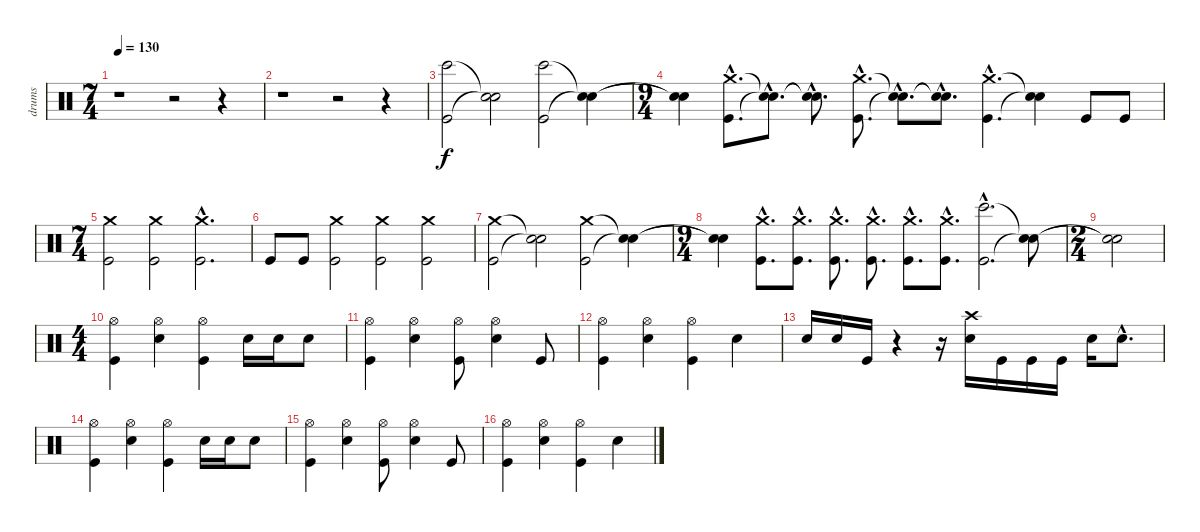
\track ("drums" "drums") {instrument percussion}
\staff {score}
\articulation defaults
\ts (7 4)
\tempo 130
\clef neutral
\ks c
r.1{dy f} r.2 r.4 |
r.1 r.2 r.4 |
("Bongo High (hit)" "Kick (hit)").2 ("Snare (hit)"{t} "Snare (hit)"{t}).2 ("Bongo High (hit)" "Kick (hit)").2 ("Snare (hit)"{t} "Snare (hit)"{t}).4 |
\ts (9 4)
("Snare (hit)"{t} "Snare (hit)"{t}).4 ("Crash medium (hit)"{hac} "Kick (hit)"{hac}).8{d} ("Snare (hit)"{hac t} "Snare (hit)"{hac t}).8{d} ("Snare (hit)"{hac t} "Snare (hit)"{hac t}).8{d} ("Crash medium (hit)"{hac} "Kick (hit)"{hac}).8{d} ("Snare (hit)"{hac t} "Snare (hit)"{hac t}).8{d} ("Snare (hit)"{hac t} "Snare (hit)"{hac t}).8{d} ("Crash medium (hit)"{hac} "Kick (hit)"{hac}).4{d} ("Snare (hit)"{t} "Snare (hit)"{t}).4 "Kick (hit)".8 "Kick (hit)".8 |
\ts (7 4)
("Crash medium (hit)" "Kick (hit)").2 ("Crash medium (hit)" "Kick (hit)").2 ("Crash medium (hit)"{hac} "Kick (hit)"{hac}).2{d} |
"Kick (hit)".8 "Kick (hit)".8 ("Crash medium (hit)" "Kick (hit)").2 ("Crash medium (hit)" "Kick (hit)").2 ("Crash medium (hit)" "Kick (hit)").2 |
("Crash medium (hit)" "Kick (hit)").2 ("Snare (hit)"{t} "Snare (hit)"{t}).2 ("Crash medium (hit)" "Kick (hit)").2 ("Snare (hit)"{t} "Snare (hit)"{t}).4 |
\ts (9 4)
("Snare (hit)"{t} "Snare (hit)"{t}).4 ("Crash medium (hit)"{hac} "Kick (hit)"{hac}).8{d} ("Crash medium (hit)"{hac} "Kick (hit)"{hac}).8{d} ("Crash medium (hit)"{hac} "Kick (hit)"{hac}).8{d} ("Crash medium (hit)"{hac} "Kick (hit)"{hac}).8{d} ("Crash medium (hit)"{hac} "Kick (hit)"{hac}).8{d} ("Crash medium (hit)"{hac} "Kick (hit)"{hac}).8{d} ("Bongo High (hit)"{hac} "Kick (hit)"{hac}).2{d} ("Snare (hit)"{t} "Snare (hit)"{t}).8 |
\ts (2 4)
("Snare (hit)"{t} "Snare (hit)"{t}).2 |
\ts (4 4)
("Kick (hit)" "Hi-Hat (open)").4 ("Snare (hit) 2" "Hi-Hat (open)").4 ("Kick (hit)" "Hi-Hat (open)").4 "Snare (hit) 2".16 "Snare (hit) 2".16 "Snare (hit) 2".8 |
("Hi-Hat (open)" "Kick (hit)").4 ("Hi-Hat (open)" "Snare (hit) 2").4 ("Hi-Hat (open)" "Kick (hit)").8 ("Hi-Hat (open)" "Snare (hit) 2").4 "Kick (hit)".8 |
("Hi-Hat (open)" "Kick (hit)").4 ("Hi-Hat (open)" "Snare (hit) 2").4 ("Hi-Hat (open)" "Kick (hit)").4 "Snare (hit) 2".4 |
"Snare (hit) 2".16 "Snare (hit) 2".16 "Kick (hit)".16 r.4 r.16 ("Crash high (hit)" "Snare (hit) 2").16 "Kick (hit)".16 "Kick (hit)".16 "Kick (hit)".16 "Snare (hit) 2".16 "Snare (hit) 2"{hac}.8{d} |
("Kick (hit)" "Hi-Hat (open)").4 ("Snare (hit) 2" "Hi-Hat (open)").4 ("Kick (hit)" "Hi-Hat (open)").4 "Snare (hit) 2".16 "Snare (hit) 2".16 "Snare (hit) 2".8 |
("Hi-Hat (open)" "Kick (hit)").4 ("Hi-Hat (open)" "Snare (hit) 2").4 ("Hi-Hat (open)" "Kick (hit)").8 ("Hi-Hat (open)" "Snare (hit) 2").4 "Kick (hit)".8 |
("Hi-Hat (open)" "Kick (hit)").4 ("Hi-Hat (open)" "Snare (hit) 2").4 ("Hi-Hat (open)" "Kick (hit)").4 "Snare (hit) 2".4
